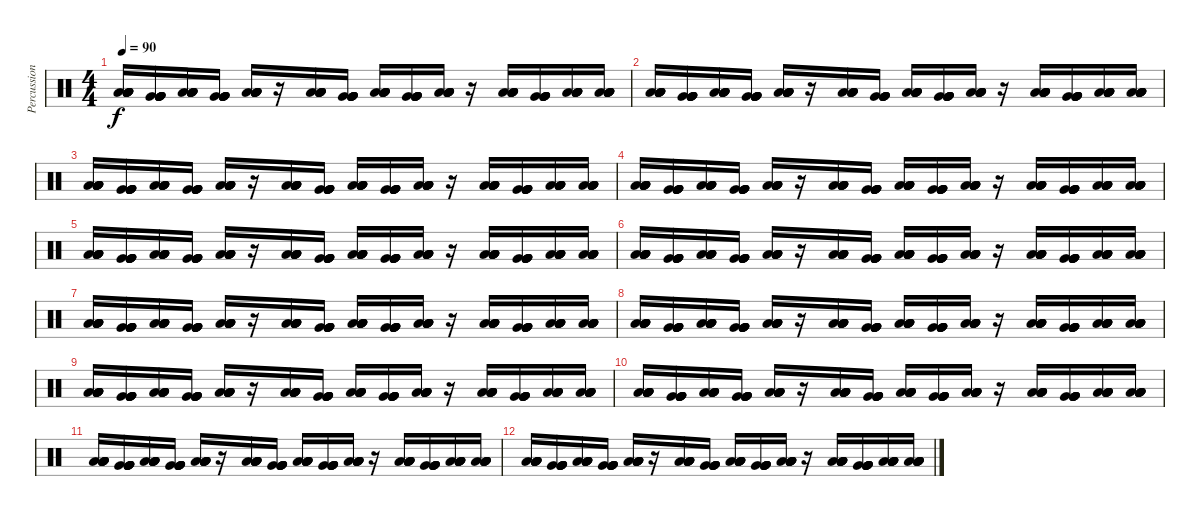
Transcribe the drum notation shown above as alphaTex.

\track ("Percussion 4" "Percussion") {instrument percussion}
\staff {score}
\articulation defaults
\ts (4 4)
\tempo 90
\clef neutral
\ks c
("Low Floor Tom (hit)" "Low Floor Tom (hit)" "Low Floor Tom (hit)" "Low Floor Tom (hit)" "Low Floor Tom (hit)" "Low Floor Tom (hit)").16{dy f} ("Very Low Tom (hit)" "Very Low Tom (hit)" "Very Low Tom (hit)" "Very Low Tom (hit)" "Very Low Tom (hit)" "Very Low Tom (hit)").16 ("Low Floor Tom (hit)" "Low Floor Tom (hit)" "Low Floor Tom (hit)" "Low Floor Tom (hit)" "Low Floor Tom (hit)" "Low Floor Tom (hit)").16 ("Very Low Tom (hit)" "Very Low Tom (hit)" "Very Low Tom (hit)" "Very Low Tom (hit)" "Very Low Tom (hit)" "Very Low Tom (hit)").16 ("Low Floor Tom (hit)" "Low Floor Tom (hit)" "Low Floor Tom (hit)" "Low Floor Tom (hit)" "Low Floor Tom (hit)" "Low Floor Tom (hit)").16 r.16 ("Low Floor Tom (hit)" "Low Floor Tom (hit)" "Low Floor Tom (hit)" "Low Floor Tom (hit)" "Low Floor Tom (hit)" "Low Floor Tom (hit)").16 ("Very Low Tom (hit)" "Very Low Tom (hit)" "Very Low Tom (hit)" "Very Low Tom (hit)" "Very Low Tom (hit)" "Very Low Tom (hit)").16 ("Low Floor Tom (hit)" "Low Floor Tom (hit)" "Low Floor Tom (hit)" "Low Floor Tom (hit)" "Low Floor Tom (hit)" "Low Floor Tom (hit)").16 ("Very Low Tom (hit)" "Very Low Tom (hit)" "Very Low Tom (hit)" "Very Low Tom (hit)" "Very Low Tom (hit)" "Very Low Tom (hit)").16 ("Low Floor Tom (hit)" "Low Floor Tom (hit)" "Low Floor Tom (hit)" "Low Floor Tom (hit)" "Low Floor Tom (hit)" "Low Floor Tom (hit)").16 r.16 ("Low Floor Tom (hit)" "Low Floor Tom (hit)" "Low Floor Tom (hit)" "Low Floor Tom (hit)" "Low Floor Tom (hit)" "Low Floor Tom (hit)").16 ("Very Low Tom (hit)" "Very Low Tom (hit)" "Very Low Tom (hit)" "Very Low Tom (hit)" "Very Low Tom (hit)" "Very Low Tom (hit)").16 ("Low Floor Tom (hit)" "Low Floor Tom (hit)" "Low Floor Tom (hit)" "Low Floor Tom (hit)" "Low Floor Tom (hit)" "Low Floor Tom (hit)").16 ("Low Floor Tom (hit)" "Low Floor Tom (hit)" "Low Floor Tom (hit)" "Low Floor Tom (hit)" "Low Floor Tom (hit)" "Low Floor Tom (hit)").16 |
("Low Floor Tom (hit)" "Low Floor Tom (hit)" "Low Floor Tom (hit)" "Low Floor Tom (hit)" "Low Floor Tom (hit)" "Low Floor Tom (hit)").16 ("Very Low Tom (hit)" "Very Low Tom (hit)" "Very Low Tom (hit)" "Very Low Tom (hit)" "Very Low Tom (hit)" "Very Low Tom (hit)").16 ("Low Floor Tom (hit)" "Low Floor Tom (hit)" "Low Floor Tom (hit)" "Low Floor Tom (hit)" "Low Floor Tom (hit)" "Low Floor Tom (hit)").16 ("Very Low Tom (hit)" "Very Low Tom (hit)" "Very Low Tom (hit)" "Very Low Tom (hit)" "Very Low Tom (hit)" "Very Low Tom (hit)").16 ("Low Floor Tom (hit)" "Low Floor Tom (hit)" "Low Floor Tom (hit)" "Low Floor Tom (hit)" "Low Floor Tom (hit)" "Low Floor Tom (hit)").16 r.16 ("Low Floor Tom (hit)" "Low Floor Tom (hit)" "Low Floor Tom (hit)" "Low Floor Tom (hit)" "Low Floor Tom (hit)" "Low Floor Tom (hit)").16 ("Very Low Tom (hit)" "Very Low Tom (hit)" "Very Low Tom (hit)" "Very Low Tom (hit)" "Very Low Tom (hit)" "Very Low Tom (hit)").16 ("Low Floor Tom (hit)" "Low Floor Tom (hit)" "Low Floor Tom (hit)" "Low Floor Tom (hit)" "Low Floor Tom (hit)" "Low Floor Tom (hit)").16 ("Very Low Tom (hit)" "Very Low Tom (hit)" "Very Low Tom (hit)" "Very Low Tom (hit)" "Very Low Tom (hit)" "Very Low Tom (hit)").16 ("Low Floor Tom (hit)" "Low Floor Tom (hit)" "Low Floor Tom (hit)" "Low Floor Tom (hit)" "Low Floor Tom (hit)" "Low Floor Tom (hit)").16 r.16 ("Low Floor Tom (hit)" "Low Floor Tom (hit)" "Low Floor Tom (hit)" "Low Floor Tom (hit)" "Low Floor Tom (hit)" "Low Floor Tom (hit)").16 ("Very Low Tom (hit)" "Very Low Tom (hit)" "Very Low Tom (hit)" "Very Low Tom (hit)" "Very Low Tom (hit)" "Very Low Tom (hit)").16 ("Low Floor Tom (hit)" "Low Floor Tom (hit)" "Low Floor Tom (hit)" "Low Floor Tom (hit)" "Low Floor Tom (hit)" "Low Floor Tom (hit)").16 ("Low Floor Tom (hit)" "Low Floor Tom (hit)" "Low Floor Tom (hit)" "Low Floor Tom (hit)" "Low Floor Tom (hit)" "Low Floor Tom (hit)").16 |
("Low Floor Tom (hit)" "Low Floor Tom (hit)" "Low Floor Tom (hit)" "Low Floor Tom (hit)" "Low Floor Tom (hit)" "Low Floor Tom (hit)").16 ("Very Low Tom (hit)" "Very Low Tom (hit)" "Very Low Tom (hit)" "Very Low Tom (hit)" "Very Low Tom (hit)" "Very Low Tom (hit)").16 ("Low Floor Tom (hit)" "Low Floor Tom (hit)" "Low Floor Tom (hit)" "Low Floor Tom (hit)" "Low Floor Tom (hit)" "Low Floor Tom (hit)").16 ("Very Low Tom (hit)" "Very Low Tom (hit)" "Very Low Tom (hit)" "Very Low Tom (hit)" "Very Low Tom (hit)" "Very Low Tom (hit)").16 ("Low Floor Tom (hit)" "Low Floor Tom (hit)" "Low Floor Tom (hit)" "Low Floor Tom (hit)" "Low Floor Tom (hit)" "Low Floor Tom (hit)").16 r.16 ("Low Floor Tom (hit)" "Low Floor Tom (hit)" "Low Floor Tom (hit)" "Low Floor Tom (hit)" "Low Floor Tom (hit)" "Low Floor Tom (hit)").16 ("Very Low Tom (hit)" "Very Low Tom (hit)" "Very Low Tom (hit)" "Very Low Tom (hit)" "Very Low Tom (hit)" "Very Low Tom (hit)").16 ("Low Floor Tom (hit)" "Low Floor Tom (hit)" "Low Floor Tom (hit)" "Low Floor Tom (hit)" "Low Floor Tom (hit)" "Low Floor Tom (hit)").16 ("Very Low Tom (hit)" "Very Low Tom (hit)" "Very Low Tom (hit)" "Very Low Tom (hit)" "Very Low Tom (hit)" "Very Low Tom (hit)").16 ("Low Floor Tom (hit)" "Low Floor Tom (hit)" "Low Floor Tom (hit)" "Low Floor Tom (hit)" "Low Floor Tom (hit)" "Low Floor Tom (hit)").16 r.16 ("Low Floor Tom (hit)" "Low Floor Tom (hit)" "Low Floor Tom (hit)" "Low Floor Tom (hit)" "Low Floor Tom (hit)" "Low Floor Tom (hit)").16 ("Very Low Tom (hit)" "Very Low Tom (hit)" "Very Low Tom (hit)" "Very Low Tom (hit)" "Very Low Tom (hit)" "Very Low Tom (hit)").16 ("Low Floor Tom (hit)" "Low Floor Tom (hit)" "Low Floor Tom (hit)" "Low Floor Tom (hit)" "Low Floor Tom (hit)" "Low Floor Tom (hit)").16 ("Low Floor Tom (hit)" "Low Floor Tom (hit)" "Low Floor Tom (hit)" "Low Floor Tom (hit)" "Low Floor Tom (hit)" "Low Floor Tom (hit)").16 |
("Low Floor Tom (hit)" "Low Floor Tom (hit)" "Low Floor Tom (hit)" "Low Floor Tom (hit)" "Low Floor Tom (hit)" "Low Floor Tom (hit)").16 ("Very Low Tom (hit)" "Very Low Tom (hit)" "Very Low Tom (hit)" "Very Low Tom (hit)" "Very Low Tom (hit)" "Very Low Tom (hit)").16 ("Low Floor Tom (hit)" "Low Floor Tom (hit)" "Low Floor Tom (hit)" "Low Floor Tom (hit)" "Low Floor Tom (hit)" "Low Floor Tom (hit)").16 ("Very Low Tom (hit)" "Very Low Tom (hit)" "Very Low Tom (hit)" "Very Low Tom (hit)" "Very Low Tom (hit)" "Very Low Tom (hit)").16 ("Low Floor Tom (hit)" "Low Floor Tom (hit)" "Low Floor Tom (hit)" "Low Floor Tom (hit)" "Low Floor Tom (hit)" "Low Floor Tom (hit)").16 r.16 ("Low Floor Tom (hit)" "Low Floor Tom (hit)" "Low Floor Tom (hit)" "Low Floor Tom (hit)" "Low Floor Tom (hit)" "Low Floor Tom (hit)").16 ("Very Low Tom (hit)" "Very Low Tom (hit)" "Very Low Tom (hit)" "Very Low Tom (hit)" "Very Low Tom (hit)" "Very Low Tom (hit)").16 ("Low Floor Tom (hit)" "Low Floor Tom (hit)" "Low Floor Tom (hit)" "Low Floor Tom (hit)" "Low Floor Tom (hit)" "Low Floor Tom (hit)").16 ("Very Low Tom (hit)" "Very Low Tom (hit)" "Very Low Tom (hit)" "Very Low Tom (hit)" "Very Low Tom (hit)" "Very Low Tom (hit)").16 ("Low Floor Tom (hit)" "Low Floor Tom (hit)" "Low Floor Tom (hit)" "Low Floor Tom (hit)" "Low Floor Tom (hit)" "Low Floor Tom (hit)").16 r.16 ("Low Floor Tom (hit)" "Low Floor Tom (hit)" "Low Floor Tom (hit)" "Low Floor Tom (hit)" "Low Floor Tom (hit)" "Low Floor Tom (hit)").16 ("Very Low Tom (hit)" "Very Low Tom (hit)" "Very Low Tom (hit)" "Very Low Tom (hit)" "Very Low Tom (hit)" "Very Low Tom (hit)").16 ("Low Floor Tom (hit)" "Low Floor Tom (hit)" "Low Floor Tom (hit)" "Low Floor Tom (hit)" "Low Floor Tom (hit)" "Low Floor Tom (hit)").16 ("Low Floor Tom (hit)" "Low Floor Tom (hit)" "Low Floor Tom (hit)" "Low Floor Tom (hit)" "Low Floor Tom (hit)" "Low Floor Tom (hit)").16 |
("Low Floor Tom (hit)" "Low Floor Tom (hit)" "Low Floor Tom (hit)" "Low Floor Tom (hit)" "Low Floor Tom (hit)" "Low Floor Tom (hit)").16 ("Very Low Tom (hit)" "Very Low Tom (hit)" "Very Low Tom (hit)" "Very Low Tom (hit)" "Very Low Tom (hit)" "Very Low Tom (hit)").16 ("Low Floor Tom (hit)" "Low Floor Tom (hit)" "Low Floor Tom (hit)" "Low Floor Tom (hit)" "Low Floor Tom (hit)" "Low Floor Tom (hit)").16 ("Very Low Tom (hit)" "Very Low Tom (hit)" "Very Low Tom (hit)" "Very Low Tom (hit)" "Very Low Tom (hit)" "Very Low Tom (hit)").16 ("Low Floor Tom (hit)" "Low Floor Tom (hit)" "Low Floor Tom (hit)" "Low Floor Tom (hit)" "Low Floor Tom (hit)" "Low Floor Tom (hit)").16 r.16 ("Low Floor Tom (hit)" "Low Floor Tom (hit)" "Low Floor Tom (hit)" "Low Floor Tom (hit)" "Low Floor Tom (hit)" "Low Floor Tom (hit)").16 ("Very Low Tom (hit)" "Very Low Tom (hit)" "Very Low Tom (hit)" "Very Low Tom (hit)" "Very Low Tom (hit)" "Very Low Tom (hit)").16 ("Low Floor Tom (hit)" "Low Floor Tom (hit)" "Low Floor Tom (hit)" "Low Floor Tom (hit)" "Low Floor Tom (hit)" "Low Floor Tom (hit)").16 ("Very Low Tom (hit)" "Very Low Tom (hit)" "Very Low Tom (hit)" "Very Low Tom (hit)" "Very Low Tom (hit)" "Very Low Tom (hit)").16 ("Low Floor Tom (hit)" "Low Floor Tom (hit)" "Low Floor Tom (hit)" "Low Floor Tom (hit)" "Low Floor Tom (hit)" "Low Floor Tom (hit)").16 r.16 ("Low Floor Tom (hit)" "Low Floor Tom (hit)" "Low Floor Tom (hit)" "Low Floor Tom (hit)" "Low Floor Tom (hit)" "Low Floor Tom (hit)").16 ("Very Low Tom (hit)" "Very Low Tom (hit)" "Very Low Tom (hit)" "Very Low Tom (hit)" "Very Low Tom (hit)" "Very Low Tom (hit)").16 ("Low Floor Tom (hit)" "Low Floor Tom (hit)" "Low Floor Tom (hit)" "Low Floor Tom (hit)" "Low Floor Tom (hit)" "Low Floor Tom (hit)").16 ("Low Floor Tom (hit)" "Low Floor Tom (hit)" "Low Floor Tom (hit)" "Low Floor Tom (hit)" "Low Floor Tom (hit)" "Low Floor Tom (hit)").16 |
("Low Floor Tom (hit)" "Low Floor Tom (hit)" "Low Floor Tom (hit)" "Low Floor Tom (hit)" "Low Floor Tom (hit)" "Low Floor Tom (hit)").16 ("Very Low Tom (hit)" "Very Low Tom (hit)" "Very Low Tom (hit)" "Very Low Tom (hit)" "Very Low Tom (hit)" "Very Low Tom (hit)").16 ("Low Floor Tom (hit)" "Low Floor Tom (hit)" "Low Floor Tom (hit)" "Low Floor Tom (hit)" "Low Floor Tom (hit)" "Low Floor Tom (hit)").16 ("Very Low Tom (hit)" "Very Low Tom (hit)" "Very Low Tom (hit)" "Very Low Tom (hit)" "Very Low Tom (hit)" "Very Low Tom (hit)").16 ("Low Floor Tom (hit)" "Low Floor Tom (hit)" "Low Floor Tom (hit)" "Low Floor Tom (hit)" "Low Floor Tom (hit)" "Low Floor Tom (hit)").16 r.16 ("Low Floor Tom (hit)" "Low Floor Tom (hit)" "Low Floor Tom (hit)" "Low Floor Tom (hit)" "Low Floor Tom (hit)" "Low Floor Tom (hit)").16 ("Very Low Tom (hit)" "Very Low Tom (hit)" "Very Low Tom (hit)" "Very Low Tom (hit)" "Very Low Tom (hit)" "Very Low Tom (hit)").16 ("Low Floor Tom (hit)" "Low Floor Tom (hit)" "Low Floor Tom (hit)" "Low Floor Tom (hit)" "Low Floor Tom (hit)" "Low Floor Tom (hit)").16 ("Very Low Tom (hit)" "Very Low Tom (hit)" "Very Low Tom (hit)" "Very Low Tom (hit)" "Very Low Tom (hit)" "Very Low Tom (hit)").16 ("Low Floor Tom (hit)" "Low Floor Tom (hit)" "Low Floor Tom (hit)" "Low Floor Tom (hit)" "Low Floor Tom (hit)" "Low Floor Tom (hit)").16 r.16 ("Low Floor Tom (hit)" "Low Floor Tom (hit)" "Low Floor Tom (hit)" "Low Floor Tom (hit)" "Low Floor Tom (hit)" "Low Floor Tom (hit)").16 ("Very Low Tom (hit)" "Very Low Tom (hit)" "Very Low Tom (hit)" "Very Low Tom (hit)" "Very Low Tom (hit)" "Very Low Tom (hit)").16 ("Low Floor Tom (hit)" "Low Floor Tom (hit)" "Low Floor Tom (hit)" "Low Floor Tom (hit)" "Low Floor Tom (hit)" "Low Floor Tom (hit)").16 ("Low Floor Tom (hit)" "Low Floor Tom (hit)" "Low Floor Tom (hit)" "Low Floor Tom (hit)" "Low Floor Tom (hit)" "Low Floor Tom (hit)").16 |
("Low Floor Tom (hit)" "Low Floor Tom (hit)" "Low Floor Tom (hit)" "Low Floor Tom (hit)" "Low Floor Tom (hit)" "Low Floor Tom (hit)").16 ("Very Low Tom (hit)" "Very Low Tom (hit)" "Very Low Tom (hit)" "Very Low Tom (hit)" "Very Low Tom (hit)" "Very Low Tom (hit)").16 ("Low Floor Tom (hit)" "Low Floor Tom (hit)" "Low Floor Tom (hit)" "Low Floor Tom (hit)" "Low Floor Tom (hit)" "Low Floor Tom (hit)").16 ("Very Low Tom (hit)" "Very Low Tom (hit)" "Very Low Tom (hit)" "Very Low Tom (hit)" "Very Low Tom (hit)" "Very Low Tom (hit)").16 ("Low Floor Tom (hit)" "Low Floor Tom (hit)" "Low Floor Tom (hit)" "Low Floor Tom (hit)" "Low Floor Tom (hit)" "Low Floor Tom (hit)").16 r.16 ("Low Floor Tom (hit)" "Low Floor Tom (hit)" "Low Floor Tom (hit)" "Low Floor Tom (hit)" "Low Floor Tom (hit)" "Low Floor Tom (hit)").16 ("Very Low Tom (hit)" "Very Low Tom (hit)" "Very Low Tom (hit)" "Very Low Tom (hit)" "Very Low Tom (hit)" "Very Low Tom (hit)").16 ("Low Floor Tom (hit)" "Low Floor Tom (hit)" "Low Floor Tom (hit)" "Low Floor Tom (hit)" "Low Floor Tom (hit)" "Low Floor Tom (hit)").16 ("Very Low Tom (hit)" "Very Low Tom (hit)" "Very Low Tom (hit)" "Very Low Tom (hit)" "Very Low Tom (hit)" "Very Low Tom (hit)").16 ("Low Floor Tom (hit)" "Low Floor Tom (hit)" "Low Floor Tom (hit)" "Low Floor Tom (hit)" "Low Floor Tom (hit)" "Low Floor Tom (hit)").16 r.16 ("Low Floor Tom (hit)" "Low Floor Tom (hit)" "Low Floor Tom (hit)" "Low Floor Tom (hit)" "Low Floor Tom (hit)" "Low Floor Tom (hit)").16 ("Very Low Tom (hit)" "Very Low Tom (hit)" "Very Low Tom (hit)" "Very Low Tom (hit)" "Very Low Tom (hit)" "Very Low Tom (hit)").16 ("Low Floor Tom (hit)" "Low Floor Tom (hit)" "Low Floor Tom (hit)" "Low Floor Tom (hit)" "Low Floor Tom (hit)" "Low Floor Tom (hit)").16 ("Low Floor Tom (hit)" "Low Floor Tom (hit)" "Low Floor Tom (hit)" "Low Floor Tom (hit)" "Low Floor Tom (hit)" "Low Floor Tom (hit)").16 |
("Low Floor Tom (hit)" "Low Floor Tom (hit)" "Low Floor Tom (hit)" "Low Floor Tom (hit)" "Low Floor Tom (hit)" "Low Floor Tom (hit)").16 ("Very Low Tom (hit)" "Very Low Tom (hit)" "Very Low Tom (hit)" "Very Low Tom (hit)" "Very Low Tom (hit)" "Very Low Tom (hit)").16 ("Low Floor Tom (hit)" "Low Floor Tom (hit)" "Low Floor Tom (hit)" "Low Floor Tom (hit)" "Low Floor Tom (hit)" "Low Floor Tom (hit)").16 ("Very Low Tom (hit)" "Very Low Tom (hit)" "Very Low Tom (hit)" "Very Low Tom (hit)" "Very Low Tom (hit)" "Very Low Tom (hit)").16 ("Low Floor Tom (hit)" "Low Floor Tom (hit)" "Low Floor Tom (hit)" "Low Floor Tom (hit)" "Low Floor Tom (hit)" "Low Floor Tom (hit)").16 r.16 ("Low Floor Tom (hit)" "Low Floor Tom (hit)" "Low Floor Tom (hit)" "Low Floor Tom (hit)" "Low Floor Tom (hit)" "Low Floor Tom (hit)").16 ("Very Low Tom (hit)" "Very Low Tom (hit)" "Very Low Tom (hit)" "Very Low Tom (hit)" "Very Low Tom (hit)" "Very Low Tom (hit)").16 ("Low Floor Tom (hit)" "Low Floor Tom (hit)" "Low Floor Tom (hit)" "Low Floor Tom (hit)" "Low Floor Tom (hit)" "Low Floor Tom (hit)").16 ("Very Low Tom (hit)" "Very Low Tom (hit)" "Very Low Tom (hit)" "Very Low Tom (hit)" "Very Low Tom (hit)" "Very Low Tom (hit)").16 ("Low Floor Tom (hit)" "Low Floor Tom (hit)" "Low Floor Tom (hit)" "Low Floor Tom (hit)" "Low Floor Tom (hit)" "Low Floor Tom (hit)").16 r.16 ("Low Floor Tom (hit)" "Low Floor Tom (hit)" "Low Floor Tom (hit)" "Low Floor Tom (hit)" "Low Floor Tom (hit)" "Low Floor Tom (hit)").16 ("Very Low Tom (hit)" "Very Low Tom (hit)" "Very Low Tom (hit)" "Very Low Tom (hit)" "Very Low Tom (hit)" "Very Low Tom (hit)").16 ("Low Floor Tom (hit)" "Low Floor Tom (hit)" "Low Floor Tom (hit)" "Low Floor Tom (hit)" "Low Floor Tom (hit)" "Low Floor Tom (hit)").16 ("Low Floor Tom (hit)" "Low Floor Tom (hit)" "Low Floor Tom (hit)" "Low Floor Tom (hit)" "Low Floor Tom (hit)" "Low Floor Tom (hit)").16 |
("Low Floor Tom (hit)" "Low Floor Tom (hit)" "Low Floor Tom (hit)" "Low Floor Tom (hit)" "Low Floor Tom (hit)" "Low Floor Tom (hit)").16 ("Very Low Tom (hit)" "Very Low Tom (hit)" "Very Low Tom (hit)" "Very Low Tom (hit)" "Very Low Tom (hit)" "Very Low Tom (hit)").16 ("Low Floor Tom (hit)" "Low Floor Tom (hit)" "Low Floor Tom (hit)" "Low Floor Tom (hit)" "Low Floor Tom (hit)" "Low Floor Tom (hit)").16 ("Very Low Tom (hit)" "Very Low Tom (hit)" "Very Low Tom (hit)" "Very Low Tom (hit)" "Very Low Tom (hit)" "Very Low Tom (hit)").16 ("Low Floor Tom (hit)" "Low Floor Tom (hit)" "Low Floor Tom (hit)" "Low Floor Tom (hit)" "Low Floor Tom (hit)" "Low Floor Tom (hit)").16 r.16 ("Low Floor Tom (hit)" "Low Floor Tom (hit)" "Low Floor Tom (hit)" "Low Floor Tom (hit)" "Low Floor Tom (hit)" "Low Floor Tom (hit)").16 ("Very Low Tom (hit)" "Very Low Tom (hit)" "Very Low Tom (hit)" "Very Low Tom (hit)" "Very Low Tom (hit)" "Very Low Tom (hit)").16 ("Low Floor Tom (hit)" "Low Floor Tom (hit)" "Low Floor Tom (hit)" "Low Floor Tom (hit)" "Low Floor Tom (hit)" "Low Floor Tom (hit)").16 ("Very Low Tom (hit)" "Very Low Tom (hit)" "Very Low Tom (hit)" "Very Low Tom (hit)" "Very Low Tom (hit)" "Very Low Tom (hit)").16 ("Low Floor Tom (hit)" "Low Floor Tom (hit)" "Low Floor Tom (hit)" "Low Floor Tom (hit)" "Low Floor Tom (hit)" "Low Floor Tom (hit)").16 r.16 ("Low Floor Tom (hit)" "Low Floor Tom (hit)" "Low Floor Tom (hit)" "Low Floor Tom (hit)" "Low Floor Tom (hit)" "Low Floor Tom (hit)").16 ("Very Low Tom (hit)" "Very Low Tom (hit)" "Very Low Tom (hit)" "Very Low Tom (hit)" "Very Low Tom (hit)" "Very Low Tom (hit)").16 ("Low Floor Tom (hit)" "Low Floor Tom (hit)" "Low Floor Tom (hit)" "Low Floor Tom (hit)" "Low Floor Tom (hit)" "Low Floor Tom (hit)").16 ("Low Floor Tom (hit)" "Low Floor Tom (hit)" "Low Floor Tom (hit)" "Low Floor Tom (hit)" "Low Floor Tom (hit)" "Low Floor Tom (hit)").16 |
("Low Floor Tom (hit)" "Low Floor Tom (hit)" "Low Floor Tom (hit)" "Low Floor Tom (hit)" "Low Floor Tom (hit)" "Low Floor Tom (hit)").16 ("Very Low Tom (hit)" "Very Low Tom (hit)" "Very Low Tom (hit)" "Very Low Tom (hit)" "Very Low Tom (hit)" "Very Low Tom (hit)").16 ("Low Floor Tom (hit)" "Low Floor Tom (hit)" "Low Floor Tom (hit)" "Low Floor Tom (hit)" "Low Floor Tom (hit)" "Low Floor Tom (hit)").16 ("Very Low Tom (hit)" "Very Low Tom (hit)" "Very Low Tom (hit)" "Very Low Tom (hit)" "Very Low Tom (hit)" "Very Low Tom (hit)").16 ("Low Floor Tom (hit)" "Low Floor Tom (hit)" "Low Floor Tom (hit)" "Low Floor Tom (hit)" "Low Floor Tom (hit)" "Low Floor Tom (hit)").16 r.16 ("Low Floor Tom (hit)" "Low Floor Tom (hit)" "Low Floor Tom (hit)" "Low Floor Tom (hit)" "Low Floor Tom (hit)" "Low Floor Tom (hit)").16 ("Very Low Tom (hit)" "Very Low Tom (hit)" "Very Low Tom (hit)" "Very Low Tom (hit)" "Very Low Tom (hit)" "Very Low Tom (hit)").16 ("Low Floor Tom (hit)" "Low Floor Tom (hit)" "Low Floor Tom (hit)" "Low Floor Tom (hit)" "Low Floor Tom (hit)" "Low Floor Tom (hit)").16 ("Very Low Tom (hit)" "Very Low Tom (hit)" "Very Low Tom (hit)" "Very Low Tom (hit)" "Very Low Tom (hit)" "Very Low Tom (hit)").16 ("Low Floor Tom (hit)" "Low Floor Tom (hit)" "Low Floor Tom (hit)" "Low Floor Tom (hit)" "Low Floor Tom (hit)" "Low Floor Tom (hit)").16 r.16 ("Low Floor Tom (hit)" "Low Floor Tom (hit)" "Low Floor Tom (hit)" "Low Floor Tom (hit)" "Low Floor Tom (hit)" "Low Floor Tom (hit)").16 ("Very Low Tom (hit)" "Very Low Tom (hit)" "Very Low Tom (hit)" "Very Low Tom (hit)" "Very Low Tom (hit)" "Very Low Tom (hit)").16 ("Low Floor Tom (hit)" "Low Floor Tom (hit)" "Low Floor Tom (hit)" "Low Floor Tom (hit)" "Low Floor Tom (hit)" "Low Floor Tom (hit)").16 ("Low Floor Tom (hit)" "Low Floor Tom (hit)" "Low Floor Tom (hit)" "Low Floor Tom (hit)" "Low Floor Tom (hit)" "Low Floor Tom (hit)").16 |
("Low Floor Tom (hit)" "Low Floor Tom (hit)" "Low Floor Tom (hit)" "Low Floor Tom (hit)" "Low Floor Tom (hit)" "Low Floor Tom (hit)").16 ("Very Low Tom (hit)" "Very Low Tom (hit)" "Very Low Tom (hit)" "Very Low Tom (hit)" "Very Low Tom (hit)" "Very Low Tom (hit)").16 ("Low Floor Tom (hit)" "Low Floor Tom (hit)" "Low Floor Tom (hit)" "Low Floor Tom (hit)" "Low Floor Tom (hit)" "Low Floor Tom (hit)").16 ("Very Low Tom (hit)" "Very Low Tom (hit)" "Very Low Tom (hit)" "Very Low Tom (hit)" "Very Low Tom (hit)" "Very Low Tom (hit)").16 ("Low Floor Tom (hit)" "Low Floor Tom (hit)" "Low Floor Tom (hit)" "Low Floor Tom (hit)" "Low Floor Tom (hit)" "Low Floor Tom (hit)").16 r.16 ("Low Floor Tom (hit)" "Low Floor Tom (hit)" "Low Floor Tom (hit)" "Low Floor Tom (hit)" "Low Floor Tom (hit)" "Low Floor Tom (hit)").16 ("Very Low Tom (hit)" "Very Low Tom (hit)" "Very Low Tom (hit)" "Very Low Tom (hit)" "Very Low Tom (hit)" "Very Low Tom (hit)").16 ("Low Floor Tom (hit)" "Low Floor Tom (hit)" "Low Floor Tom (hit)" "Low Floor Tom (hit)" "Low Floor Tom (hit)" "Low Floor Tom (hit)").16 ("Very Low Tom (hit)" "Very Low Tom (hit)" "Very Low Tom (hit)" "Very Low Tom (hit)" "Very Low Tom (hit)" "Very Low Tom (hit)").16 ("Low Floor Tom (hit)" "Low Floor Tom (hit)" "Low Floor Tom (hit)" "Low Floor Tom (hit)" "Low Floor Tom (hit)" "Low Floor Tom (hit)").16 r.16 ("Low Floor Tom (hit)" "Low Floor Tom (hit)" "Low Floor Tom (hit)" "Low Floor Tom (hit)" "Low Floor Tom (hit)" "Low Floor Tom (hit)").16 ("Very Low Tom (hit)" "Very Low Tom (hit)" "Very Low Tom (hit)" "Very Low Tom (hit)" "Very Low Tom (hit)" "Very Low Tom (hit)").16 ("Low Floor Tom (hit)" "Low Floor Tom (hit)" "Low Floor Tom (hit)" "Low Floor Tom (hit)" "Low Floor Tom (hit)" "Low Floor Tom (hit)").16 ("Low Floor Tom (hit)" "Low Floor Tom (hit)" "Low Floor Tom (hit)" "Low Floor Tom (hit)" "Low Floor Tom (hit)" "Low Floor Tom (hit)").16 |
("Low Floor Tom (hit)" "Low Floor Tom (hit)" "Low Floor Tom (hit)" "Low Floor Tom (hit)" "Low Floor Tom (hit)" "Low Floor Tom (hit)").16 ("Very Low Tom (hit)" "Very Low Tom (hit)" "Very Low Tom (hit)" "Very Low Tom (hit)" "Very Low Tom (hit)" "Very Low Tom (hit)").16 ("Low Floor Tom (hit)" "Low Floor Tom (hit)" "Low Floor Tom (hit)" "Low Floor Tom (hit)" "Low Floor Tom (hit)" "Low Floor Tom (hit)").16 ("Very Low Tom (hit)" "Very Low Tom (hit)" "Very Low Tom (hit)" "Very Low Tom (hit)" "Very Low Tom (hit)" "Very Low Tom (hit)").16 ("Low Floor Tom (hit)" "Low Floor Tom (hit)" "Low Floor Tom (hit)" "Low Floor Tom (hit)" "Low Floor Tom (hit)" "Low Floor Tom (hit)").16 r.16 ("Low Floor Tom (hit)" "Low Floor Tom (hit)" "Low Floor Tom (hit)" "Low Floor Tom (hit)" "Low Floor Tom (hit)" "Low Floor Tom (hit)").16 ("Very Low Tom (hit)" "Very Low Tom (hit)" "Very Low Tom (hit)" "Very Low Tom (hit)" "Very Low Tom (hit)" "Very Low Tom (hit)").16 ("Low Floor Tom (hit)" "Low Floor Tom (hit)" "Low Floor Tom (hit)" "Low Floor Tom (hit)" "Low Floor Tom (hit)" "Low Floor Tom (hit)").16 ("Very Low Tom (hit)" "Very Low Tom (hit)" "Very Low Tom (hit)" "Very Low Tom (hit)" "Very Low Tom (hit)" "Very Low Tom (hit)").16 ("Low Floor Tom (hit)" "Low Floor Tom (hit)" "Low Floor Tom (hit)" "Low Floor Tom (hit)" "Low Floor Tom (hit)" "Low Floor Tom (hit)").16 r.16 ("Low Floor Tom (hit)" "Low Floor Tom (hit)" "Low Floor Tom (hit)" "Low Floor Tom (hit)" "Low Floor Tom (hit)" "Low Floor Tom (hit)").16 ("Very Low Tom (hit)" "Very Low Tom (hit)" "Very Low Tom (hit)" "Very Low Tom (hit)" "Very Low Tom (hit)" "Very Low Tom (hit)").16 ("Low Floor Tom (hit)" "Low Floor Tom (hit)" "Low Floor Tom (hit)" "Low Floor Tom (hit)" "Low Floor Tom (hit)" "Low Floor Tom (hit)").16 ("Low Floor Tom (hit)" "Low Floor Tom (hit)" "Low Floor Tom (hit)" "Low Floor Tom (hit)" "Low Floor Tom (hit)" "Low Floor Tom (hit)").16
